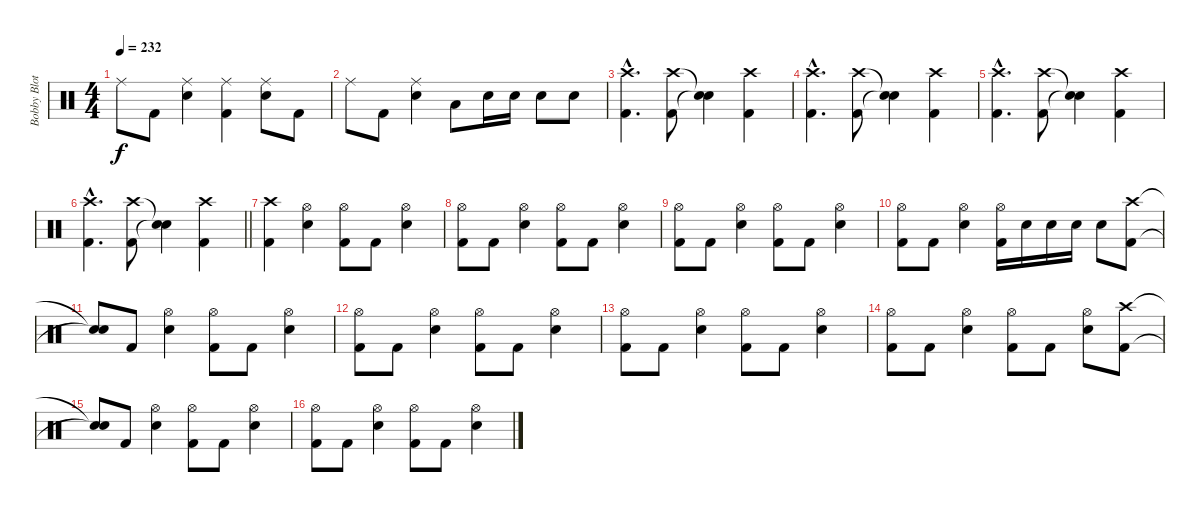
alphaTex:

\track ("Bobby Blotzer" "Bobby Blot") {instrument percussion}
\staff {score}
\articulation defaults
\ts (4 4)
\tempo 232
\clef neutral
\ks c "Ride (middle)".8{dy f} "Kick (hit) 2".8
("Ride (middle)" "Electric Snare (hit)").4 ("Ride (middle)" "Kick (hit) 2").4 ("Ride (middle)" "Electric Snare (hit)").8 "Kick (hit) 2".8 |
"Ride (middle)".8 "Kick (hit) 2".8 ("Ride (middle)" "Electric Snare (hit)").4 "Low Tom (hit)".8 "Electric Snare (hit)".16 "Electric Snare (hit)".16 "Electric Snare (hit)".8 "Electric Snare (hit)".8 |
("Crash high (hit)"{hac} "Kick (hit) 2"{hac}).4{d} ("Crash high (hit)" "Kick (hit) 2").8 ("Snare (hit)"{t} "Snare (hit)"{t}).4 ("Crash high (hit)" "Kick (hit) 2").4 |
("Crash high (hit)"{hac} "Kick (hit) 2"{hac}).4{d} ("Crash high (hit)" "Kick (hit) 2").8 ("Snare (hit)"{t} "Snare (hit)"{t}).4 ("Crash high (hit)" "Kick (hit) 2").4 |
("Crash high (hit)"{hac} "Kick (hit) 2"{hac}).4{d} ("Crash high (hit)" "Kick (hit) 2").8 ("Snare (hit)"{t} "Snare (hit)"{t}).4 ("Crash high (hit)" "Kick (hit) 2").4 |
\barLineRight lightlight
("Crash high (hit)"{hac} "Kick (hit) 2"{hac}).4{d} ("Crash high (hit)" "Kick (hit) 2").8 ("Snare (hit)"{t} "Snare (hit)"{t}).4 ("Crash high (hit)" "Kick (hit) 2").4 |
("Crash high (hit)" "Kick (hit) 2").4 ("Hi-Hat (open)" "Electric Snare (hit)").4 ("Hi-Hat (open)" "Kick (hit) 2").8 "Kick (hit) 2".8 ("Hi-Hat (open)" "Electric Snare (hit)").4 |
("Hi-Hat (open)" "Kick (hit) 2").8 "Kick (hit) 2".8 ("Hi-Hat (open)" "Electric Snare (hit)").4 ("Hi-Hat (open)" "Kick (hit) 2").8 "Kick (hit) 2".8 ("Hi-Hat (open)" "Electric Snare (hit)").4 |
("Hi-Hat (open)" "Kick (hit) 2").8 "Kick (hit) 2".8 ("Hi-Hat (open)" "Electric Snare (hit)").4 ("Hi-Hat (open)" "Kick (hit) 2").8 "Kick (hit) 2".8 ("Hi-Hat (open)" "Electric Snare (hit)").4 |
("Hi-Hat (open)" "Kick (hit) 2").8 "Kick (hit) 2".8 ("Hi-Hat (open)" "Electric Snare (hit)").4 ("Hi-Hat (open)" "Kick (hit) 2").16 "Electric Snare (hit)".16 "Electric Snare (hit)".16 "Electric Snare (hit)".16 "Electric Snare (hit)".8 ("Crash high (hit)" "Kick (hit) 2").8 |
("Snare (hit)"{t} "Snare (hit)"{t}).8 "Kick (hit) 2".8 ("Hi-Hat (open)" "Electric Snare (hit)").4 ("Hi-Hat (open)" "Kick (hit) 2").8 "Kick (hit) 2".8 ("Hi-Hat (open)" "Electric Snare (hit)").4 |
("Hi-Hat (open)" "Kick (hit) 2").8 "Kick (hit) 2".8 ("Hi-Hat (open)" "Electric Snare (hit)").4 ("Hi-Hat (open)" "Kick (hit) 2").8 "Kick (hit) 2".8 ("Hi-Hat (open)" "Electric Snare (hit)").4 |
("Hi-Hat (open)" "Kick (hit) 2").8 "Kick (hit) 2".8 ("Hi-Hat (open)" "Electric Snare (hit)").4 ("Hi-Hat (open)" "Kick (hit) 2").8 "Kick (hit) 2".8 ("Hi-Hat (open)" "Electric Snare (hit)").4 |
("Hi-Hat (open)" "Kick (hit) 2").8 "Kick (hit) 2".8 ("Hi-Hat (open)" "Electric Snare (hit)").4 ("Hi-Hat (open)" "Kick (hit) 2").8 "Kick (hit) 2".8 ("Hi-Hat (open)" "Electric Snare (hit)").8 ("Crash high (hit)" "Kick (hit) 2").8 |
("Snare (hit)"{t} "Snare (hit)"{t}).8 "Kick (hit) 2".8 ("Hi-Hat (open)" "Electric Snare (hit)").4 ("Hi-Hat (open)" "Kick (hit) 2").8 "Kick (hit) 2".8 ("Hi-Hat (open)" "Electric Snare (hit)").4 |
("Hi-Hat (open)" "Kick (hit) 2").8 "Kick (hit) 2".8 ("Hi-Hat (open)" "Electric Snare (hit)").4 ("Hi-Hat (open)" "Kick (hit) 2").8 "Kick (hit) 2".8 ("Hi-Hat (open)" "Electric Snare (hit)").4
